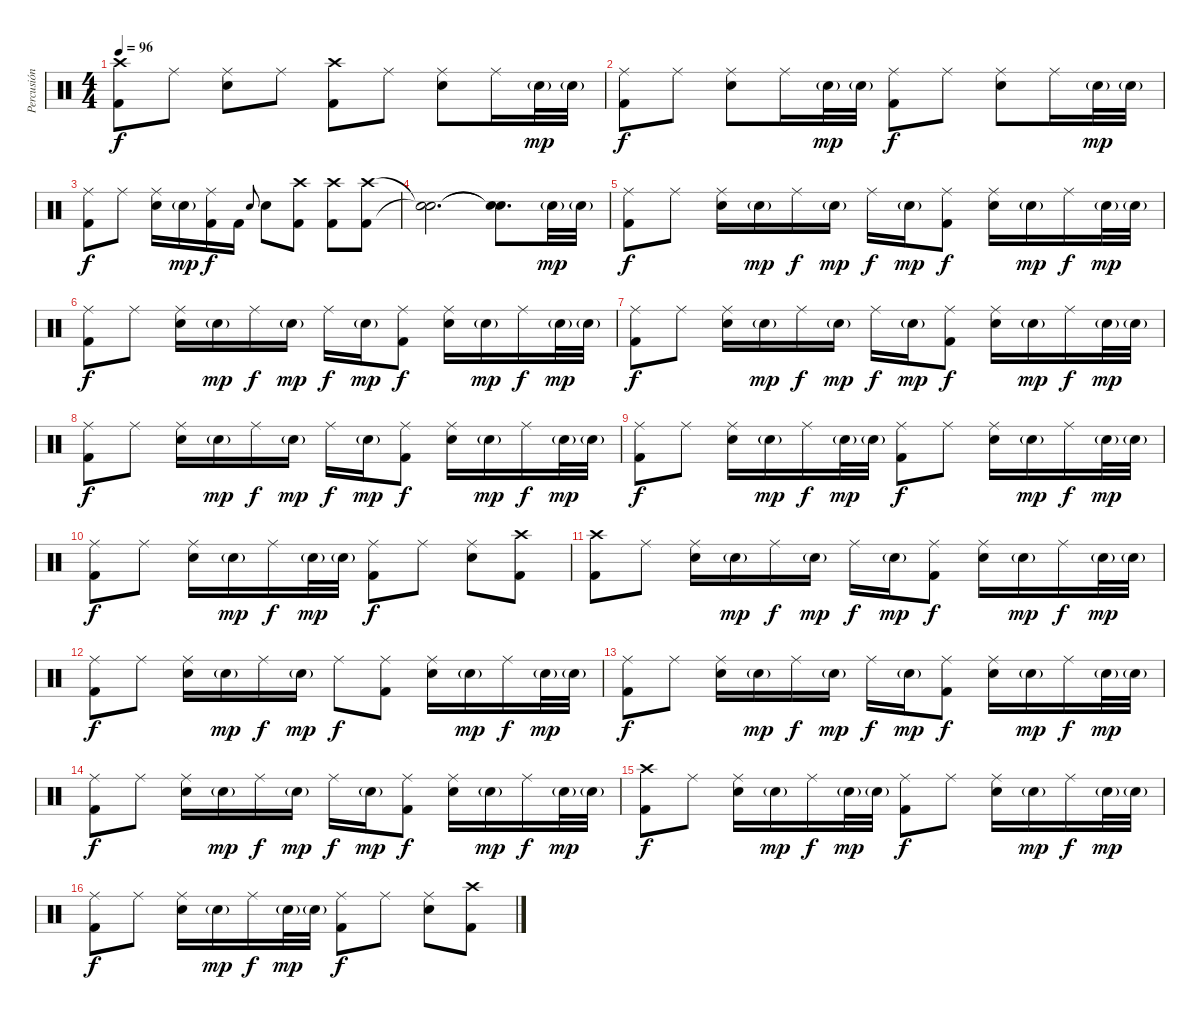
\track ("Percusión" "Percusión") {instrument percussion}
\staff {score}
\articulation defaults
\ts (4 4)
\tempo 96
\clef neutral
\ks c
("Crash high (hit)" "Kick (hit) 2").8{dy f} "Ride (middle)".8 ("Ride (middle)" "Snare (hit) 2").8 "Ride (middle)".8 ("Crash high (hit)" "Kick (hit) 2").8 "Ride (middle)".8 ("Ride (middle)" "Snare (hit) 2").8 "Ride (middle)".16 "Snare (hit) 2"{g}.32{dy mp} "Snare (hit) 2"{g}.32 |
("Ride (middle)" "Kick (hit) 2").8{dy f} "Ride (middle)".8 ("Ride (middle)" "Snare (hit) 2").8 "Ride (middle)".16 "Snare (hit) 2"{g}.32{dy mp} "Snare (hit) 2"{g}.32 ("Ride (middle)" "Kick (hit) 2").8{dy f} "Ride (middle)".8 ("Ride (middle)" "Snare (hit) 2").8 "Ride (middle)".16 "Snare (hit) 2"{g}.32{dy mp} "Snare (hit) 2"{g}.32 |
("Ride (middle)" "Kick (hit) 2").8{dy f} "Ride (middle)".8 ("Ride (middle)" "Snare (hit) 2").16 "Snare (hit) 2"{g}.16{dy mp} ("Ride (middle)" "Kick (hit) 2").16{dy f} "Kick (hit) 2".16 "Snare (hit) 2".8{gr onbeat} "Snare (hit) 2".8 ("Crash high (hit)" "Kick (hit) 2").8 ("Crash high (hit)" "Kick (hit) 2").8 ("Crash high (hit)" "Kick (hit) 2").8 |
("Snare (hit)"{t} "Snare (hit)"{t}).2{d} ("Snare (hit)"{t} "Snare (hit)"{t}).8{d} "Snare (hit) 2"{g}.32{dy mp} "Snare (hit) 2"{g}.32 |
("Ride (middle)" "Kick (hit) 2").8{dy f} "Ride (middle)".8 ("Ride (middle)" "Snare (hit) 2").16 "Snare (hit) 2"{g}.16{dy mp} "Ride (middle)".16{dy f} "Snare (hit) 2"{g}.16{dy mp} "Ride (middle)".16{dy f} "Snare (hit) 2"{g}.16{dy mp} ("Ride (middle)" "Kick (hit) 2").8{dy f} ("Ride (middle)" "Snare (hit) 2").16 "Snare (hit) 2"{g}.16{dy mp} "Ride (middle)".16{dy f} "Snare (hit) 2"{g}.32{dy mp} "Snare (hit) 2"{g}.32 |
("Ride (middle)" "Kick (hit) 2").8{dy f} "Ride (middle)".8 ("Ride (middle)" "Snare (hit) 2").16 "Snare (hit) 2"{g}.16{dy mp} "Ride (middle)".16{dy f} "Snare (hit) 2"{g}.16{dy mp} "Ride (middle)".16{dy f} "Snare (hit) 2"{g}.16{dy mp} ("Ride (middle)" "Kick (hit) 2").8{dy f} ("Ride (middle)" "Snare (hit) 2").16 "Snare (hit) 2"{g}.16{dy mp} "Ride (middle)".16{dy f} "Snare (hit) 2"{g}.32{dy mp} "Snare (hit) 2"{g}.32 |
("Ride (middle)" "Kick (hit) 2").8{dy f} "Ride (middle)".8 ("Ride (middle)" "Snare (hit) 2").16 "Snare (hit) 2"{g}.16{dy mp} "Ride (middle)".16{dy f} "Snare (hit) 2"{g}.16{dy mp} "Ride (middle)".16{dy f} "Snare (hit) 2"{g}.16{dy mp} ("Ride (middle)" "Kick (hit) 2").8{dy f} ("Ride (middle)" "Snare (hit) 2").16 "Snare (hit) 2"{g}.16{dy mp} "Ride (middle)".16{dy f} "Snare (hit) 2"{g}.32{dy mp} "Snare (hit) 2"{g}.32 |
("Ride (middle)" "Kick (hit) 2").8{dy f} "Ride (middle)".8 ("Ride (middle)" "Snare (hit) 2").16 "Snare (hit) 2"{g}.16{dy mp} "Ride (middle)".16{dy f} "Snare (hit) 2"{g}.16{dy mp} "Ride (middle)".16{dy f} "Snare (hit) 2"{g}.16{dy mp} ("Ride (middle)" "Kick (hit) 2").8{dy f} ("Ride (middle)" "Snare (hit) 2").16 "Snare (hit) 2"{g}.16{dy mp} "Ride (middle)".16{dy f} "Snare (hit) 2"{g}.32{dy mp} "Snare (hit) 2"{g}.32 |
("Ride (middle)" "Kick (hit) 2").8{dy f} "Ride (middle)".8 ("Ride (middle)" "Snare (hit) 2").16 "Snare (hit) 2"{g}.16{dy mp} "Ride (middle)".16{dy f} "Snare (hit) 2"{g}.32{dy mp} "Snare (hit) 2"{g}.32 ("Ride (middle)" "Kick (hit) 2").8{dy f} "Ride (middle)".8 ("Ride (middle)" "Snare (hit) 2").16 "Snare (hit) 2"{g}.16{dy mp} "Ride (middle)".16{dy f} "Snare (hit) 2"{g}.32{dy mp} "Snare (hit) 2"{g}.32 |
("Ride (middle)" "Kick (hit) 2").8{dy f} "Ride (middle)".8 ("Ride (middle)" "Snare (hit) 2").16 "Snare (hit) 2"{g}.16{dy mp} "Ride (middle)".16{dy f} "Snare (hit) 2"{g}.32{dy mp} "Snare (hit) 2"{g}.32 ("Ride (middle)" "Kick (hit) 2").8{dy f} "Ride (middle)".8 ("Ride (middle)" "Snare (hit) 2").8 ("Crash high (hit)" "Kick (hit) 2").8 |
("Crash high (hit)" "Kick (hit) 2").8 "Ride (middle)".8 ("Ride (middle)" "Snare (hit) 2").16 "Snare (hit) 2"{g}.16{dy mp} "Ride (middle)".16{dy f} "Snare (hit) 2"{g}.16{dy mp} "Ride (middle)".16{dy f} "Snare (hit) 2"{g}.16{dy mp} ("Ride (middle)" "Kick (hit) 2").8{dy f} ("Ride (middle)" "Snare (hit) 2").16 "Snare (hit) 2"{g}.16{dy mp} "Ride (middle)".16{dy f} "Snare (hit) 2"{g}.32{dy mp} "Snare (hit) 2"{g}.32 |
("Ride (middle)" "Kick (hit) 2").8{dy f} "Ride (middle)".8 ("Ride (middle)" "Snare (hit) 2").16 "Snare (hit) 2"{g}.16{dy mp} "Ride (middle)".16{dy f} "Snare (hit) 2"{g}.16{dy mp} "Ride (middle)".8{dy f} ("Ride (middle)" "Kick (hit) 2").8 ("Ride (middle)" "Snare (hit) 2").16 "Snare (hit) 2"{g}.16{dy mp} "Ride (middle)".16{dy f} "Snare (hit) 2"{g}.32{dy mp} "Snare (hit) 2"{g}.32 |
("Ride (middle)" "Kick (hit) 2").8{dy f} "Ride (middle)".8 ("Ride (middle)" "Snare (hit) 2").16 "Snare (hit) 2"{g}.16{dy mp} "Ride (middle)".16{dy f} "Snare (hit) 2"{g}.16{dy mp} "Ride (middle)".16{dy f} "Snare (hit) 2"{g}.16{dy mp} ("Ride (middle)" "Kick (hit) 2").8{dy f} ("Ride (middle)" "Snare (hit) 2").16 "Snare (hit) 2"{g}.16{dy mp} "Ride (middle)".16{dy f} "Snare (hit) 2"{g}.32{dy mp} "Snare (hit) 2"{g}.32 |
("Ride (middle)" "Kick (hit) 2").8{dy f} "Ride (middle)".8 ("Ride (middle)" "Snare (hit) 2").16 "Snare (hit) 2"{g}.16{dy mp} "Ride (middle)".16{dy f} "Snare (hit) 2"{g}.16{dy mp} "Ride (middle)".16{dy f} "Snare (hit) 2"{g}.16{dy mp} ("Ride (middle)" "Kick (hit) 2").8{dy f} ("Ride (middle)" "Snare (hit) 2").16 "Snare (hit) 2"{g}.16{dy mp} "Ride (middle)".16{dy f} "Snare (hit) 2"{g}.32{dy mp} "Snare (hit) 2"{g}.32 |
("Crash high (hit)" "Kick (hit) 2").8{dy f} "Ride (middle)".8 ("Ride (middle)" "Snare (hit) 2").16 "Snare (hit) 2"{g}.16{dy mp} "Ride (middle)".16{dy f} "Snare (hit) 2"{g}.32{dy mp} "Snare (hit) 2"{g}.32 ("Ride (middle)" "Kick (hit) 2").8{dy f} "Ride (middle)".8 ("Ride (middle)" "Snare (hit) 2").16 "Snare (hit) 2"{g}.16{dy mp} "Ride (middle)".16{dy f} "Snare (hit) 2"{g}.32{dy mp} "Snare (hit) 2"{g}.32 |
("Ride (middle)" "Kick (hit) 2").8{dy f} "Ride (middle)".8 ("Ride (middle)" "Snare (hit) 2").16 "Snare (hit) 2"{g}.16{dy mp} "Ride (middle)".16{dy f} "Snare (hit) 2"{g}.32{dy mp} "Snare (hit) 2"{g}.32 ("Ride (middle)" "Kick (hit) 2").8{dy f} "Ride (middle)".8 ("Ride (middle)" "Snare (hit) 2").8 ("Crash high (hit)" "Kick (hit) 2").8
